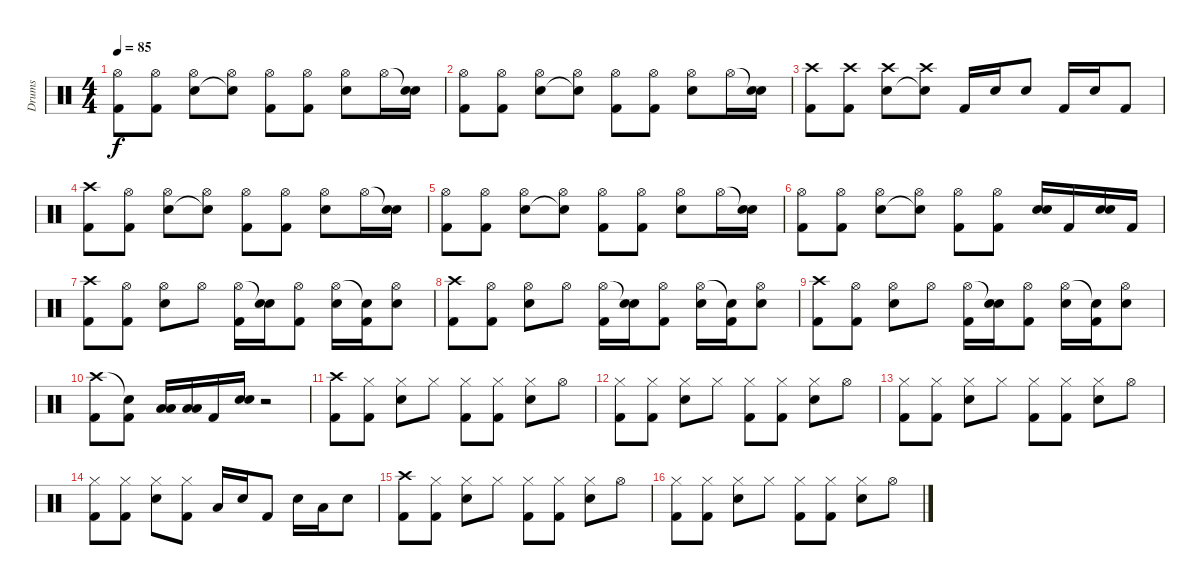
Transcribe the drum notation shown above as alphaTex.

\track ("Drums" "Drums") {instrument percussion}
\staff {score}
\articulation defaults
\ts (4 4)
\tempo 85
\clef neutral
\ks c
("Hi-Hat (open)" "Kick (hit) 2").8{dy f} ("Hi-Hat (open)" "Kick (hit) 2").8 ("Hi-Hat (open)" "Snare (hit) 2").8 ("Hi-Hat (open)" "Snare (hit)"{t}).8 ("Hi-Hat (open)" "Kick (hit) 2").8 ("Hi-Hat (open)" "Kick (hit) 2").8 ("Hi-Hat (open)" "Snare (hit) 2").8 "Hi-Hat (open)".16 ("Snare (hit)"{t} "Snare (hit) 2").16 |
("Hi-Hat (open)" "Kick (hit) 2").8 ("Hi-Hat (open)" "Kick (hit) 2").8 ("Hi-Hat (open)" "Snare (hit) 2").8 ("Hi-Hat (open)" "Snare (hit)"{t}).8 ("Hi-Hat (open)" "Kick (hit) 2").8 ("Hi-Hat (open)" "Kick (hit) 2").8 ("Hi-Hat (open)" "Snare (hit) 2").8 "Hi-Hat (open)".16 ("Snare (hit)"{t} "Snare (hit) 2").16 |
("Crash high (hit)" "Kick (hit) 2").8 ("Crash high (hit)" "Kick (hit) 2").8 ("Crash high (hit)" "Snare (hit) 2").8 ("Crash high (hit)" "Snare (hit)"{t}).8 "Kick (hit) 2".16 "Snare (hit) 2".16 "Snare (hit) 2".8 "Kick (hit) 2".16 "Snare (hit) 2".16 "Kick (hit) 2".8 |
("Crash high (hit)" "Kick (hit) 2").8 ("Hi-Hat (open)" "Kick (hit) 2").8 ("Hi-Hat (open)" "Snare (hit) 2").8 ("Hi-Hat (open)" "Snare (hit)"{t}).8 ("Hi-Hat (open)" "Kick (hit) 2").8 ("Hi-Hat (open)" "Kick (hit) 2").8 ("Hi-Hat (open)" "Snare (hit) 2").8 "Hi-Hat (open)".16 ("Snare (hit)"{t} "Snare (hit) 2").16 |
("Hi-Hat (open)" "Kick (hit) 2").8 ("Hi-Hat (open)" "Kick (hit) 2").8 ("Hi-Hat (open)" "Snare (hit) 2").8 ("Hi-Hat (open)" "Snare (hit)"{t}).8 ("Hi-Hat (open)" "Kick (hit) 2").8 ("Hi-Hat (open)" "Kick (hit) 2").8 ("Hi-Hat (open)" "Snare (hit) 2").8 "Hi-Hat (open)".16 ("Snare (hit)"{t} "Snare (hit) 2").16 |
("Hi-Hat (open)" "Kick (hit) 2").8 ("Hi-Hat (open)" "Kick (hit) 2").8 ("Hi-Hat (open)" "Snare (hit) 2").8 ("Hi-Hat (open)" "Snare (hit)"{t}).8 ("Hi-Hat (open)" "Kick (hit) 2").8 ("Hi-Hat (open)" "Kick (hit) 2").8 ("Snare (hit) 2" "Snare (hit) 2").16 "Kick (hit) 2".16 ("Snare (hit) 2" "Snare (hit) 2").16 "Kick (hit) 2".16 |
("Crash high (hit)" "Kick (hit) 2").8 ("Hi-Hat (open)" "Kick (hit) 2").8 ("Hi-Hat (open)" "Snare (hit) 2").8 "Hi-Hat (open)".8 ("Hi-Hat (open)" "Kick (hit) 2").16 ("Snare (hit)"{t} "Snare (hit) 2").16 ("Hi-Hat (open)" "Kick (hit) 2").8 ("Hi-Hat (open)" "Snare (hit) 2").16 ("Snare (hit)"{t} "Kick (hit) 2").16 ("Hi-Hat (open)" "Snare (hit) 2").8 |
("Crash high (hit)" "Kick (hit) 2").8 ("Hi-Hat (open)" "Kick (hit) 2").8 ("Hi-Hat (open)" "Snare (hit) 2").8 "Hi-Hat (open)".8 ("Hi-Hat (open)" "Kick (hit) 2").16 ("Snare (hit)"{t} "Snare (hit) 2").16 ("Hi-Hat (open)" "Kick (hit) 2").8 ("Hi-Hat (open)" "Snare (hit) 2").16 ("Snare (hit)"{t} "Kick (hit) 2").16 ("Hi-Hat (open)" "Snare (hit) 2").8 |
("Crash high (hit)" "Kick (hit) 2").8 ("Hi-Hat (open)" "Kick (hit) 2").8 ("Hi-Hat (open)" "Snare (hit) 2").8 "Hi-Hat (open)".8 ("Hi-Hat (open)" "Kick (hit) 2").16 ("Snare (hit)"{t} "Snare (hit) 2").16 ("Hi-Hat (open)" "Kick (hit) 2").8 ("Hi-Hat (open)" "Snare (hit) 2").16 ("Snare (hit)"{t} "Kick (hit) 2").16 ("Hi-Hat (open)" "Snare (hit) 2").8 |
("Crash high (hit)" "Kick (hit) 2").8 ("Snare (hit)"{t} "Kick (hit) 2").8 ("Low Floor Tom (hit)" "Low Floor Tom (hit)").16 ("Low Floor Tom (hit)" "Low Floor Tom (hit)").16 "Kick (hit) 2".16 ("Snare (hit) 2" "Snare (hit) 2").16 r.2 |
("Crash high (hit)" "Kick (hit) 2").8 ("Hi-Hat (closed)" "Kick (hit) 2").8 ("Hi-Hat (closed)" "Snare (hit) 2").8 "Hi-Hat (closed)".8 ("Hi-Hat (closed)" "Kick (hit) 2").8 ("Hi-Hat (closed)" "Kick (hit) 2").8 ("Hi-Hat (closed)" "Snare (hit) 2").8 "Hi-Hat (open)".8 |
("Hi-Hat (closed)" "Kick (hit) 2").8 ("Hi-Hat (closed)" "Kick (hit) 2").8 ("Hi-Hat (closed)" "Snare (hit) 2").8 "Hi-Hat (closed)".8 ("Hi-Hat (closed)" "Kick (hit) 2").8 ("Hi-Hat (closed)" "Kick (hit) 2").8 ("Hi-Hat (closed)" "Snare (hit) 2").8 "Hi-Hat (open)".8 |
("Hi-Hat (closed)" "Kick (hit) 2").8 ("Hi-Hat (closed)" "Kick (hit) 2").8 ("Hi-Hat (closed)" "Snare (hit) 2").8 "Hi-Hat (closed)".8 ("Hi-Hat (closed)" "Kick (hit) 2").8 ("Hi-Hat (closed)" "Kick (hit) 2").8 ("Hi-Hat (closed)" "Snare (hit) 2").8 "Hi-Hat (open)".8 |
("Hi-Hat (closed)" "Kick (hit) 2").8 ("Hi-Hat (closed)" "Kick (hit) 2").8 ("Hi-Hat (closed)" "Snare (hit) 2").8 ("Hi-Hat (closed)" "Kick (hit) 2").8 "Low Floor Tom (hit)".16 "Snare (hit) 2".16 "Kick (hit) 2".8 "Snare (hit) 2".16 "Low Tom (hit)".16 "Snare (hit) 2".8 |
("Crash high (hit)" "Kick (hit) 2").8 ("Hi-Hat (closed)" "Kick (hit) 2").8 ("Hi-Hat (closed)" "Snare (hit) 2").8 "Hi-Hat (closed)".8 ("Hi-Hat (closed)" "Kick (hit) 2").8 ("Hi-Hat (closed)" "Kick (hit) 2").8 ("Hi-Hat (closed)" "Snare (hit) 2").8 "Hi-Hat (open)".8 |
("Hi-Hat (closed)" "Kick (hit) 2").8 ("Hi-Hat (closed)" "Kick (hit) 2").8 ("Hi-Hat (closed)" "Snare (hit) 2").8 "Hi-Hat (closed)".8 ("Hi-Hat (closed)" "Kick (hit) 2").8 ("Hi-Hat (closed)" "Kick (hit) 2").8 ("Hi-Hat (closed)" "Snare (hit) 2").8 "Hi-Hat (open)".8
